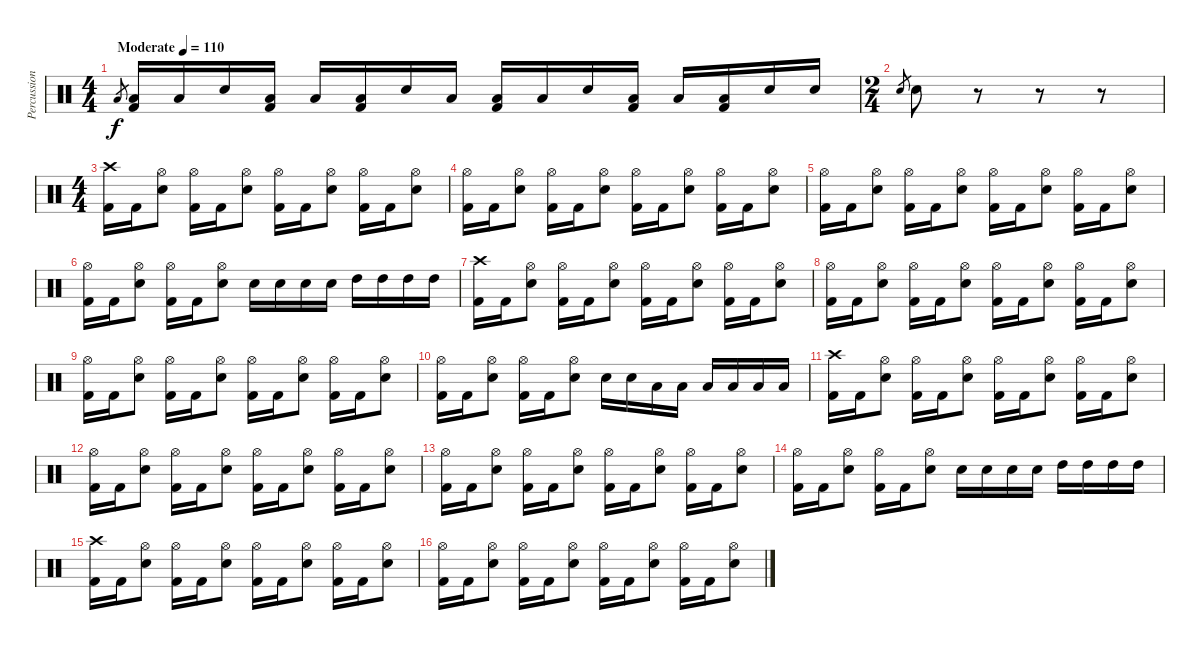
\track ("Percussion" "Percussion") {instrument percussion}
\staff {score}
\articulation defaults
\ts (4 4)
\tempo (110 "Moderate")
\clef neutral
\ks c "Low Tom (hit)".8{gr dy f}
("Low Tom (hit)" "Kick (hit) 2").16 "Low Tom (hit)".16 "Electric Snare (hit)".16 ("Low Tom (hit)" "Kick (hit) 2").16 "Low Tom (hit)".16 ("Low Tom (hit)" "Kick (hit) 2").16 "Electric Snare (hit)".16 "Low Tom (hit)".16 ("Low Tom (hit)" "Kick (hit) 2").16 "Low Tom (hit)".16 "Electric Snare (hit)".16 ("Low Tom (hit)" "Kick (hit) 2").16 "Low Tom (hit)".16 ("Low Tom (hit)" "Kick (hit) 2").16 "Electric Snare (hit)".16 "Electric Snare (hit)".16 |
\ts (2 4)
"Electric Snare (hit)".8{gr} "Electric Snare (hit)".8 r.8 r.8 r.8 |
\ts (4 4)
("Crash high (hit)" "Kick (hit) 2").16 "Kick (hit) 2".16 ("Hi-Hat (open)" "Electric Snare (hit)").8 ("Hi-Hat (open)" "Kick (hit) 2").16 "Kick (hit) 2".16 ("Hi-Hat (open)" "Electric Snare (hit)").8 ("Hi-Hat (open)" "Kick (hit) 2").16 "Kick (hit) 2".16 ("Hi-Hat (open)" "Electric Snare (hit)").8 ("Hi-Hat (open)" "Kick (hit) 2").16 "Kick (hit) 2".16 ("Hi-Hat (open)" "Electric Snare (hit)").8 |
("Hi-Hat (open)" "Kick (hit) 2").16 "Kick (hit) 2".16 ("Hi-Hat (open)" "Electric Snare (hit)").8 ("Hi-Hat (open)" "Kick (hit) 2").16 "Kick (hit) 2".16 ("Hi-Hat (open)" "Electric Snare (hit)").8 ("Hi-Hat (open)" "Kick (hit) 2").16 "Kick (hit) 2".16 ("Hi-Hat (open)" "Electric Snare (hit)").8 ("Hi-Hat (open)" "Kick (hit) 2").16 "Kick (hit) 2".16 ("Hi-Hat (open)" "Electric Snare (hit)").8 |
("Hi-Hat (open)" "Kick (hit) 2").16 "Kick (hit) 2".16 ("Hi-Hat (open)" "Electric Snare (hit)").8 ("Hi-Hat (open)" "Kick (hit) 2").16 "Kick (hit) 2".16 ("Hi-Hat (open)" "Electric Snare (hit)").8 ("Hi-Hat (open)" "Kick (hit) 2").16 "Kick (hit) 2".16 ("Hi-Hat (open)" "Electric Snare (hit)").8 ("Hi-Hat (open)" "Kick (hit) 2").16 "Kick (hit) 2".16 ("Hi-Hat (open)" "Electric Snare (hit)").8 |
("Hi-Hat (open)" "Kick (hit) 2").16 "Kick (hit) 2".16 ("Hi-Hat (open)" "Electric Snare (hit)").8 ("Hi-Hat (open)" "Kick (hit) 2").16 "Kick (hit) 2".16 ("Hi-Hat (open)" "Electric Snare (hit)").8 "Electric Snare (hit)".16 "Electric Snare (hit)".16 "Electric Snare (hit)".16 "Electric Snare (hit)".16 "High Tom (hit)".16 "High Tom (hit)".16 "High Tom (hit)".16 "High Tom (hit)".16 |
("Crash high (hit)" "Kick (hit) 2").16 "Kick (hit) 2".16 ("Hi-Hat (open)" "Electric Snare (hit)").8 ("Hi-Hat (open)" "Kick (hit) 2").16 "Kick (hit) 2".16 ("Hi-Hat (open)" "Electric Snare (hit)").8 ("Hi-Hat (open)" "Kick (hit) 2").16 "Kick (hit) 2".16 ("Hi-Hat (open)" "Electric Snare (hit)").8 ("Hi-Hat (open)" "Kick (hit) 2").16 "Kick (hit) 2".16 ("Hi-Hat (open)" "Electric Snare (hit)").8 |
("Hi-Hat (open)" "Kick (hit) 2").16 "Kick (hit) 2".16 ("Hi-Hat (open)" "Electric Snare (hit)").8 ("Hi-Hat (open)" "Kick (hit) 2").16 "Kick (hit) 2".16 ("Hi-Hat (open)" "Electric Snare (hit)").8 ("Hi-Hat (open)" "Kick (hit) 2").16 "Kick (hit) 2".16 ("Hi-Hat (open)" "Electric Snare (hit)").8 ("Hi-Hat (open)" "Kick (hit) 2").16 "Kick (hit) 2".16 ("Hi-Hat (open)" "Electric Snare (hit)").8 |
("Hi-Hat (open)" "Kick (hit) 2").16 "Kick (hit) 2".16 ("Hi-Hat (open)" "Electric Snare (hit)").8 ("Hi-Hat (open)" "Kick (hit) 2").16 "Kick (hit) 2".16 ("Hi-Hat (open)" "Electric Snare (hit)").8 ("Hi-Hat (open)" "Kick (hit) 2").16 "Kick (hit) 2".16 ("Hi-Hat (open)" "Electric Snare (hit)").8 ("Hi-Hat (open)" "Kick (hit) 2").16 "Kick (hit) 2".16 ("Hi-Hat (open)" "Electric Snare (hit)").8 |
("Hi-Hat (open)" "Kick (hit) 2").16 "Kick (hit) 2".16 ("Hi-Hat (open)" "Electric Snare (hit)").8 ("Hi-Hat (open)" "Kick (hit) 2").16 "Kick (hit) 2".16 ("Hi-Hat (open)" "Electric Snare (hit)").8 "Electric Snare (hit)".16 "Electric Snare (hit)".16 "Low Tom (hit)".16 "Low Tom (hit)".16 "Low Tom (hit)".16 "Low Tom (hit)".16 "Low Tom (hit)".16 "Low Tom (hit)".16 |
("Crash high (hit)" "Kick (hit) 2").16 "Kick (hit) 2".16 ("Hi-Hat (open)" "Electric Snare (hit)").8 ("Hi-Hat (open)" "Kick (hit) 2").16 "Kick (hit) 2".16 ("Hi-Hat (open)" "Electric Snare (hit)").8 ("Hi-Hat (open)" "Kick (hit) 2").16 "Kick (hit) 2".16 ("Hi-Hat (open)" "Electric Snare (hit)").8 ("Hi-Hat (open)" "Kick (hit) 2").16 "Kick (hit) 2".16 ("Hi-Hat (open)" "Electric Snare (hit)").8 |
("Hi-Hat (open)" "Kick (hit) 2").16 "Kick (hit) 2".16 ("Hi-Hat (open)" "Electric Snare (hit)").8 ("Hi-Hat (open)" "Kick (hit) 2").16 "Kick (hit) 2".16 ("Hi-Hat (open)" "Electric Snare (hit)").8 ("Hi-Hat (open)" "Kick (hit) 2").16 "Kick (hit) 2".16 ("Hi-Hat (open)" "Electric Snare (hit)").8 ("Hi-Hat (open)" "Kick (hit) 2").16 "Kick (hit) 2".16 ("Hi-Hat (open)" "Electric Snare (hit)").8 |
("Hi-Hat (open)" "Kick (hit) 2").16 "Kick (hit) 2".16 ("Hi-Hat (open)" "Electric Snare (hit)").8 ("Hi-Hat (open)" "Kick (hit) 2").16 "Kick (hit) 2".16 ("Hi-Hat (open)" "Electric Snare (hit)").8 ("Hi-Hat (open)" "Kick (hit) 2").16 "Kick (hit) 2".16 ("Hi-Hat (open)" "Electric Snare (hit)").8 ("Hi-Hat (open)" "Kick (hit) 2").16 "Kick (hit) 2".16 ("Hi-Hat (open)" "Electric Snare (hit)").8 |
("Hi-Hat (open)" "Kick (hit) 2").16 "Kick (hit) 2".16 ("Hi-Hat (open)" "Electric Snare (hit)").8 ("Hi-Hat (open)" "Kick (hit) 2").16 "Kick (hit) 2".16 ("Hi-Hat (open)" "Electric Snare (hit)").8 "Electric Snare (hit)".16 "Electric Snare (hit)".16 "Electric Snare (hit)".16 "Electric Snare (hit)".16 "High Tom (hit)".16 "High Tom (hit)".16 "High Tom (hit)".16 "High Tom (hit)".16 |
("Crash high (hit)" "Kick (hit) 2").16 "Kick (hit) 2".16 ("Hi-Hat (open)" "Electric Snare (hit)").8 ("Hi-Hat (open)" "Kick (hit) 2").16 "Kick (hit) 2".16 ("Hi-Hat (open)" "Electric Snare (hit)").8 ("Hi-Hat (open)" "Kick (hit) 2").16 "Kick (hit) 2".16 ("Hi-Hat (open)" "Electric Snare (hit)").8 ("Hi-Hat (open)" "Kick (hit) 2").16 "Kick (hit) 2".16 ("Hi-Hat (open)" "Electric Snare (hit)").8 |
("Hi-Hat (open)" "Kick (hit) 2").16 "Kick (hit) 2".16 ("Hi-Hat (open)" "Electric Snare (hit)").8 ("Hi-Hat (open)" "Kick (hit) 2").16 "Kick (hit) 2".16 ("Hi-Hat (open)" "Electric Snare (hit)").8 ("Hi-Hat (open)" "Kick (hit) 2").16 "Kick (hit) 2".16 ("Hi-Hat (open)" "Electric Snare (hit)").8 ("Hi-Hat (open)" "Kick (hit) 2").16 "Kick (hit) 2".16 ("Hi-Hat (open)" "Electric Snare (hit)").8
